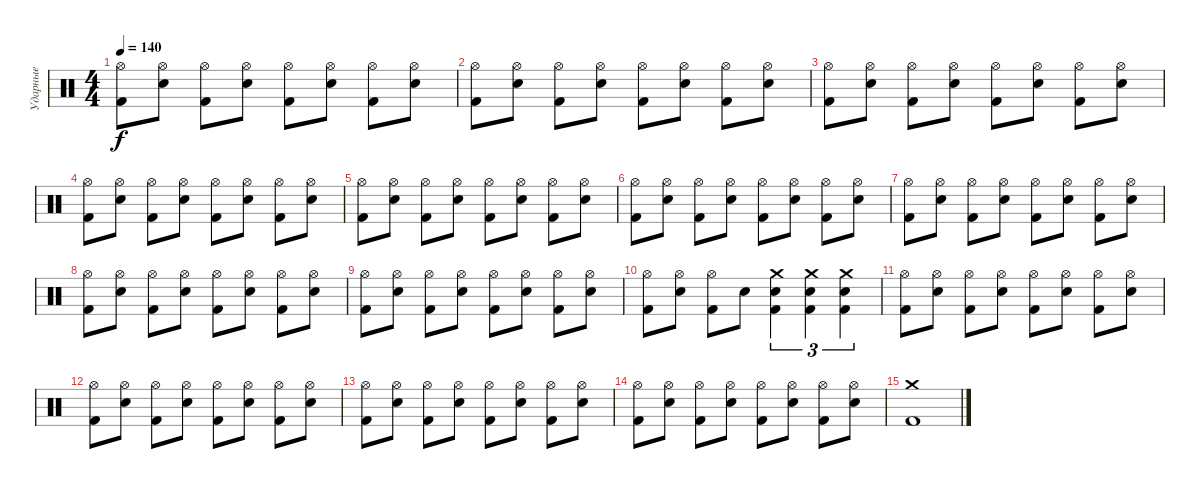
\track ("Ударные" "Ударные") {instrument percussion}
\staff {score}
\articulation defaults
\ts (4 4)
\tempo 140
\clef neutral
\ks c
("Hi-Hat (open)" "Kick (hit) 2").8{dy f} ("Hi-Hat (open)" "Electric Snare (hit)").8 ("Hi-Hat (open)" "Kick (hit) 2").8 ("Hi-Hat (open)" "Electric Snare (hit)").8 ("Hi-Hat (open)" "Kick (hit) 2").8 ("Hi-Hat (open)" "Electric Snare (hit)").8 ("Hi-Hat (open)" "Kick (hit) 2").8 ("Hi-Hat (open)" "Electric Snare (hit)").8 |
("Hi-Hat (open)" "Kick (hit) 2").8 ("Hi-Hat (open)" "Electric Snare (hit)").8 ("Hi-Hat (open)" "Kick (hit) 2").8 ("Hi-Hat (open)" "Electric Snare (hit)").8 ("Hi-Hat (open)" "Kick (hit) 2").8 ("Hi-Hat (open)" "Electric Snare (hit)").8 ("Hi-Hat (open)" "Kick (hit) 2").8 ("Hi-Hat (open)" "Electric Snare (hit)").8 |
("Hi-Hat (open)" "Kick (hit) 2").8 ("Hi-Hat (open)" "Electric Snare (hit)").8 ("Hi-Hat (open)" "Kick (hit) 2").8 ("Hi-Hat (open)" "Electric Snare (hit)").8 ("Hi-Hat (open)" "Kick (hit) 2").8 ("Hi-Hat (open)" "Electric Snare (hit)").8 ("Hi-Hat (open)" "Kick (hit) 2").8 ("Hi-Hat (open)" "Electric Snare (hit)").8 |
("Hi-Hat (open)" "Kick (hit) 2").8 ("Hi-Hat (open)" "Electric Snare (hit)").8 ("Hi-Hat (open)" "Kick (hit) 2").8 ("Hi-Hat (open)" "Electric Snare (hit)").8 ("Hi-Hat (open)" "Kick (hit) 2").8 ("Hi-Hat (open)" "Electric Snare (hit)").8 ("Hi-Hat (open)" "Kick (hit) 2").8 ("Hi-Hat (open)" "Electric Snare (hit)").8 |
("Hi-Hat (open)" "Kick (hit) 2").8 ("Hi-Hat (open)" "Electric Snare (hit)").8 ("Hi-Hat (open)" "Kick (hit) 2").8 ("Hi-Hat (open)" "Electric Snare (hit)").8 ("Hi-Hat (open)" "Kick (hit) 2").8 ("Hi-Hat (open)" "Electric Snare (hit)").8 ("Hi-Hat (open)" "Kick (hit) 2").8 ("Hi-Hat (open)" "Electric Snare (hit)").8 |
("Hi-Hat (open)" "Kick (hit) 2").8 ("Hi-Hat (open)" "Electric Snare (hit)").8 ("Hi-Hat (open)" "Kick (hit) 2").8 ("Hi-Hat (open)" "Electric Snare (hit)").8 ("Hi-Hat (open)" "Kick (hit) 2").8 ("Hi-Hat (open)" "Electric Snare (hit)").8 ("Hi-Hat (open)" "Kick (hit) 2").8 ("Hi-Hat (open)" "Electric Snare (hit)").8 |
("Hi-Hat (open)" "Kick (hit) 2").8 ("Hi-Hat (open)" "Electric Snare (hit)").8 ("Hi-Hat (open)" "Kick (hit) 2").8 ("Hi-Hat (open)" "Electric Snare (hit)").8 ("Hi-Hat (open)" "Kick (hit) 2").8 ("Hi-Hat (open)" "Electric Snare (hit)").8 ("Hi-Hat (open)" "Kick (hit) 2").8 ("Hi-Hat (open)" "Electric Snare (hit)").8 |
("Hi-Hat (open)" "Kick (hit) 2").8 ("Hi-Hat (open)" "Electric Snare (hit)").8 ("Hi-Hat (open)" "Kick (hit) 2").8 ("Hi-Hat (open)" "Electric Snare (hit)").8 ("Hi-Hat (open)" "Kick (hit) 2").8 ("Hi-Hat (open)" "Electric Snare (hit)").8 ("Hi-Hat (open)" "Kick (hit) 2").8 ("Hi-Hat (open)" "Electric Snare (hit)").8 |
("Hi-Hat (open)" "Kick (hit) 2").8 ("Hi-Hat (open)" "Electric Snare (hit)").8 ("Hi-Hat (open)" "Kick (hit) 2").8 ("Hi-Hat (open)" "Electric Snare (hit)").8 ("Hi-Hat (open)" "Kick (hit) 2").8 ("Hi-Hat (open)" "Electric Snare (hit)").8 ("Hi-Hat (open)" "Kick (hit) 2").8 ("Hi-Hat (open)" "Electric Snare (hit)").8 |
("Hi-Hat (open)" "Kick (hit) 2").8 ("Hi-Hat (open)" "Electric Snare (hit)").8 ("Hi-Hat (open)" "Kick (hit) 2").8 "Electric Snare (hit)".8 ("Crash medium (hit)" "Electric Snare (hit)" "Kick (hit) 2").4{tu (3 2)} ("Crash medium (hit)" "Electric Snare (hit)" "Kick (hit) 2").4{tu (3 2)} ("Crash medium (hit)" "Electric Snare (hit)" "Kick (hit) 2").4{tu (3 2)} |
("Hi-Hat (open)" "Kick (hit) 2").8 ("Hi-Hat (open)" "Electric Snare (hit)").8 ("Hi-Hat (open)" "Kick (hit) 2").8 ("Hi-Hat (open)" "Electric Snare (hit)").8 ("Hi-Hat (open)" "Kick (hit) 2").8 ("Hi-Hat (open)" "Electric Snare (hit)").8 ("Hi-Hat (open)" "Kick (hit) 2").8 ("Hi-Hat (open)" "Electric Snare (hit)").8 |
("Hi-Hat (open)" "Kick (hit) 2").8 ("Hi-Hat (open)" "Electric Snare (hit)").8 ("Hi-Hat (open)" "Kick (hit) 2").8 ("Hi-Hat (open)" "Electric Snare (hit)").8 ("Hi-Hat (open)" "Kick (hit) 2").8 ("Hi-Hat (open)" "Electric Snare (hit)").8 ("Hi-Hat (open)" "Kick (hit) 2").8 ("Hi-Hat (open)" "Electric Snare (hit)").8 |
("Hi-Hat (open)" "Kick (hit) 2").8 ("Hi-Hat (open)" "Electric Snare (hit)").8 ("Hi-Hat (open)" "Kick (hit) 2").8 ("Hi-Hat (open)" "Electric Snare (hit)").8 ("Hi-Hat (open)" "Kick (hit) 2").8 ("Hi-Hat (open)" "Electric Snare (hit)").8 ("Hi-Hat (open)" "Kick (hit) 2").8 ("Hi-Hat (open)" "Electric Snare (hit)").8 |
("Hi-Hat (open)" "Kick (hit) 2").8 ("Hi-Hat (open)" "Electric Snare (hit)").8 ("Hi-Hat (open)" "Kick (hit) 2").8 ("Hi-Hat (open)" "Electric Snare (hit)").8 ("Hi-Hat (open)" "Kick (hit) 2").8 ("Hi-Hat (open)" "Electric Snare (hit)").8 ("Hi-Hat (open)" "Kick (hit) 2").8 ("Hi-Hat (open)" "Electric Snare (hit)").8 |
("Crash medium (hit)" "Kick (hit) 2").1
